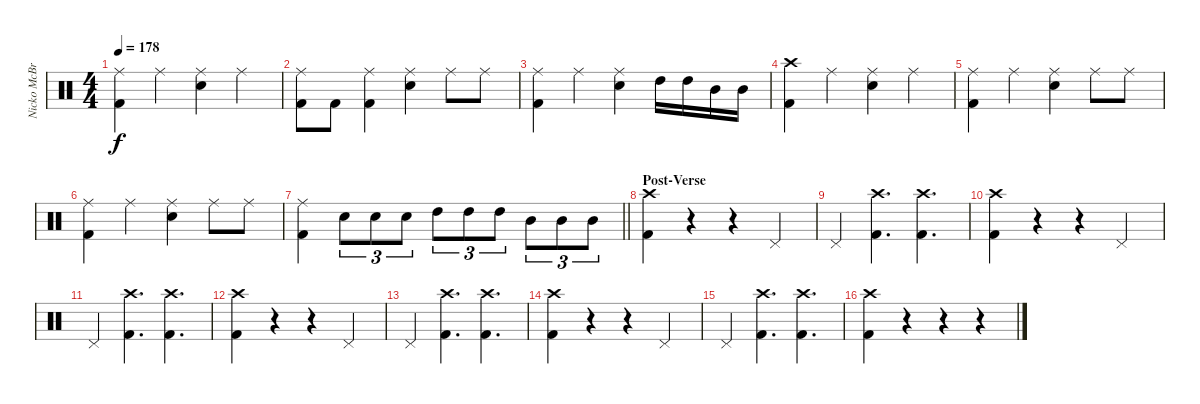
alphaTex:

\track ("Nicko McBrian" "Nicko McBr") {instrument percussion}
\staff {score}
\articulation defaults
\ts (4 4)
\tempo 178
\clef neutral
\ks c
("Ride (middle)" "Kick (hit) 2").4{dy f} "Ride (middle)".4 ("Ride (middle)" "Electric Snare (hit)").4 "Ride (middle)".4 |
("Ride (middle)" "Kick (hit) 2").8 "Kick (hit) 2".8 ("Ride (middle)" "Kick (hit) 2").4 ("Ride (middle)" "Electric Snare (hit)").4 "Ride (middle)".8 "Ride (middle)".8 |
("Ride (middle)" "Kick (hit) 2").4 "Ride (middle)".4 ("Ride (middle)" "Electric Snare (hit)").4 "High Tom (hit)".16 "High Tom (hit)".16 "Mid Tom (hit)".16 "Mid Tom (hit)".16 |
("Crash high (hit)" "Kick (hit) 2").4 "Ride (middle)".4 ("Ride (middle)" "Electric Snare (hit)").4 "Ride (middle)".4 |
("Ride (middle)" "Kick (hit) 2").4 "Ride (middle)".4 ("Ride (middle)" "Electric Snare (hit)").4 "Ride (middle)".8 "Ride (middle)".8 |
("Ride (middle)" "Kick (hit) 2").4 "Ride (middle)".4 ("Ride (middle)" "Electric Snare (hit)").4 "Ride (middle)".8 "Ride (middle)".8 |
\barLineRight lightlight
("Ride (middle)" "Kick (hit) 2").4 "Electric Snare (hit)".8{tu (3 2)} "Electric Snare (hit)".8{tu (3 2)} "Electric Snare (hit)".8{tu (3 2)} "High Tom (hit)".8{tu (3 2)} "High Tom (hit)".8{tu (3 2)} "High Tom (hit)".8{tu (3 2)} "Mid Tom (hit)".8{tu (3 2)} "Mid Tom (hit)".8{tu (3 2)} "Mid Tom (hit)".8{tu (3 2)} |
\section ("" "Post-Verse")
("Crash high (hit)" "Kick (hit) 2").4 r.4 r.4 "Pedal Hi-Hat (hit)".4 |
"Pedal Hi-Hat (hit)".4 ("Crash high (hit)" "Kick (hit) 2").4{d} ("Crash high (hit)" "Kick (hit) 2").4{d} |
("Crash high (hit)" "Kick (hit) 2").4 r.4 r.4 "Pedal Hi-Hat (hit)".4 |
"Pedal Hi-Hat (hit)".4 ("Crash high (hit)" "Kick (hit) 2").4{d} ("Crash high (hit)" "Kick (hit) 2").4{d} |
("Crash high (hit)" "Kick (hit) 2").4 r.4 r.4 "Pedal Hi-Hat (hit)".4 |
"Pedal Hi-Hat (hit)".4 ("Crash high (hit)" "Kick (hit) 2").4{d} ("Crash high (hit)" "Kick (hit) 2").4{d} |
("Crash high (hit)" "Kick (hit) 2").4 r.4 r.4 "Pedal Hi-Hat (hit)".4 |
"Pedal Hi-Hat (hit)".4 ("Crash high (hit)" "Kick (hit) 2").4{d} ("Crash high (hit)" "Kick (hit) 2").4{d} |
("Crash high (hit)" "Kick (hit) 2").4 r.4 r.4 r.4
